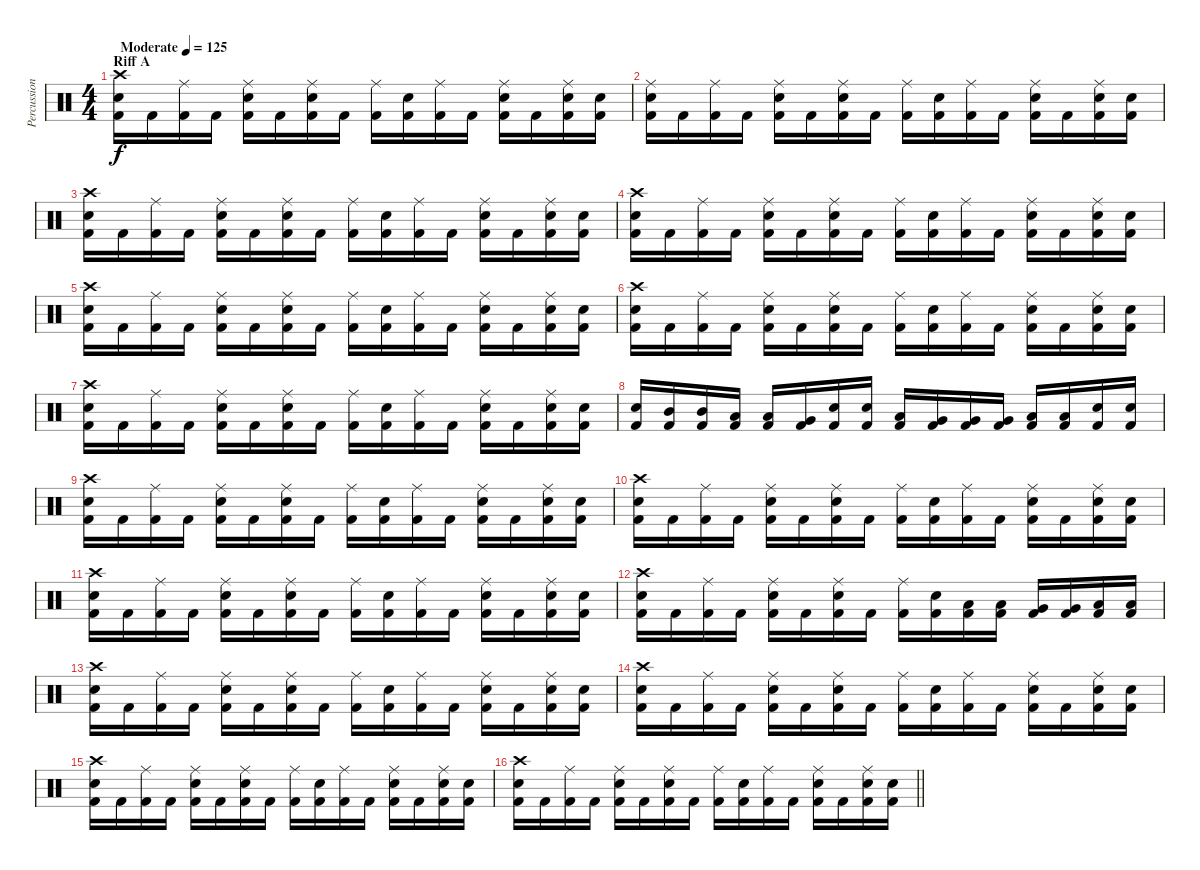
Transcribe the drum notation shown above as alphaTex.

\track ("Percussion" "Percussion") {instrument percussion}
\staff {score}
\articulation defaults
\ts (4 4)
\section ("" "Riff A")
\tempo (125 "Moderate")
\clef neutral
\ks c
("Crash high (hit)" "Snare (hit) 2" "Kick (hit) 2").16{dy f} "Kick (hit) 2".16 ("Ride (middle)" "Kick (hit) 2").16 "Kick (hit) 2".16 ("Ride (middle)" "Snare (hit) 2" "Kick (hit) 2").16 "Kick (hit) 2".16 ("Ride (middle)" "Snare (hit) 2" "Kick (hit) 2").16 "Kick (hit) 2".16 ("Ride (middle)" "Kick (hit) 2").16 ("Snare (hit) 2" "Kick (hit) 2").16 ("Ride (middle)" "Kick (hit) 2").16 "Kick (hit) 2".16 ("Ride (middle)" "Snare (hit) 2" "Kick (hit) 2").16 "Kick (hit) 2".16 ("Ride (middle)" "Snare (hit) 2" "Kick (hit) 2").16 ("Snare (hit) 2" "Kick (hit) 2").16 |
("Ride (middle)" "Snare (hit) 2" "Kick (hit) 2").16 "Kick (hit) 2".16 ("Ride (middle)" "Kick (hit) 2").16 "Kick (hit) 2".16 ("Ride (middle)" "Snare (hit) 2" "Kick (hit) 2").16 "Kick (hit) 2".16 ("Ride (middle)" "Snare (hit) 2" "Kick (hit) 2").16 "Kick (hit) 2".16 ("Ride (middle)" "Kick (hit) 2").16 ("Snare (hit) 2" "Kick (hit) 2").16 ("Ride (middle)" "Kick (hit) 2").16 "Kick (hit) 2".16 ("Ride (middle)" "Snare (hit) 2" "Kick (hit) 2").16 "Kick (hit) 2".16 ("Ride (middle)" "Snare (hit) 2" "Kick (hit) 2").16 ("Snare (hit) 2" "Kick (hit) 2").16 |
("Crash high (hit)" "Snare (hit) 2" "Kick (hit) 2").16 "Kick (hit) 2".16 ("Ride (middle)" "Kick (hit) 2").16 "Kick (hit) 2".16 ("Ride (middle)" "Snare (hit) 2" "Kick (hit) 2").16 "Kick (hit) 2".16 ("Ride (middle)" "Snare (hit) 2" "Kick (hit) 2").16 "Kick (hit) 2".16 ("Ride (middle)" "Kick (hit) 2").16 ("Snare (hit) 2" "Kick (hit) 2").16 ("Ride (middle)" "Kick (hit) 2").16 "Kick (hit) 2".16 ("Ride (middle)" "Snare (hit) 2" "Kick (hit) 2").16 "Kick (hit) 2".16 ("Ride (middle)" "Snare (hit) 2" "Kick (hit) 2").16 ("Snare (hit) 2" "Kick (hit) 2").16 |
("Crash high (hit)" "Snare (hit) 2" "Kick (hit) 2").16 "Kick (hit) 2".16 ("Ride (middle)" "Kick (hit) 2").16 "Kick (hit) 2".16 ("Ride (middle)" "Snare (hit) 2" "Kick (hit) 2").16 "Kick (hit) 2".16 ("Ride (middle)" "Snare (hit) 2" "Kick (hit) 2").16 "Kick (hit) 2".16 ("Ride (middle)" "Kick (hit) 2").16 ("Snare (hit) 2" "Kick (hit) 2").16 ("Ride (middle)" "Kick (hit) 2").16 "Kick (hit) 2".16 ("Ride (middle)" "Snare (hit) 2" "Kick (hit) 2").16 "Kick (hit) 2".16 ("Ride (middle)" "Snare (hit) 2" "Kick (hit) 2").16 ("Snare (hit) 2" "Kick (hit) 2").16 |
("Crash high (hit)" "Snare (hit) 2" "Kick (hit) 2").16 "Kick (hit) 2".16 ("Ride (middle)" "Kick (hit) 2").16 "Kick (hit) 2".16 ("Ride (middle)" "Snare (hit) 2" "Kick (hit) 2").16 "Kick (hit) 2".16 ("Ride (middle)" "Snare (hit) 2" "Kick (hit) 2").16 "Kick (hit) 2".16 ("Ride (middle)" "Kick (hit) 2").16 ("Snare (hit) 2" "Kick (hit) 2").16 ("Ride (middle)" "Kick (hit) 2").16 "Kick (hit) 2".16 ("Ride (middle)" "Snare (hit) 2" "Kick (hit) 2").16 "Kick (hit) 2".16 ("Ride (middle)" "Snare (hit) 2" "Kick (hit) 2").16 ("Snare (hit) 2" "Kick (hit) 2").16 |
("Crash high (hit)" "Snare (hit) 2" "Kick (hit) 2").16 "Kick (hit) 2".16 ("Ride (middle)" "Kick (hit) 2").16 "Kick (hit) 2".16 ("Ride (middle)" "Snare (hit) 2" "Kick (hit) 2").16 "Kick (hit) 2".16 ("Ride (middle)" "Snare (hit) 2" "Kick (hit) 2").16 "Kick (hit) 2".16 ("Ride (middle)" "Kick (hit) 2").16 ("Snare (hit) 2" "Kick (hit) 2").16 ("Ride (middle)" "Kick (hit) 2").16 "Kick (hit) 2".16 ("Ride (middle)" "Snare (hit) 2" "Kick (hit) 2").16 "Kick (hit) 2".16 ("Ride (middle)" "Snare (hit) 2" "Kick (hit) 2").16 ("Snare (hit) 2" "Kick (hit) 2").16 |
("Crash high (hit)" "Snare (hit) 2" "Kick (hit) 2").16 "Kick (hit) 2".16 ("Ride (middle)" "Kick (hit) 2").16 "Kick (hit) 2".16 ("Ride (middle)" "Snare (hit) 2" "Kick (hit) 2").16 "Kick (hit) 2".16 ("Ride (middle)" "Snare (hit) 2" "Kick (hit) 2").16 "Kick (hit) 2".16 ("Ride (middle)" "Kick (hit) 2").16 ("Snare (hit) 2" "Kick (hit) 2").16 ("Ride (middle)" "Kick (hit) 2").16 "Kick (hit) 2".16 ("Ride (middle)" "Snare (hit) 2" "Kick (hit) 2").16 "Kick (hit) 2".16 ("Ride (middle)" "Snare (hit) 2" "Kick (hit) 2").16 ("Snare (hit) 2" "Kick (hit) 2").16 |
("Snare (hit) 2" "Kick (hit) 2").16 ("Mid Tom (hit)" "Kick (hit) 2").16 ("Mid Tom (hit)" "Kick (hit) 2").16 ("Low Tom (hit)" "Kick (hit) 2").16 ("Low Tom (hit)" "Kick (hit) 2").16 ("Very Low Tom (hit)" "Kick (hit) 2").16 ("Snare (hit) 2" "Kick (hit) 2").16 ("Snare (hit) 2" "Kick (hit) 2").16 ("Low Tom (hit)" "Kick (hit) 2").16 ("Very Low Tom (hit)" "Kick (hit) 2").16 ("Very Low Tom (hit)" "Kick (hit) 2").16 ("Very Low Tom (hit)" "Kick (hit) 2").16 ("Low Floor Tom (hit)" "Kick (hit) 2").16 ("Low Floor Tom (hit)" "Kick (hit) 2").16 ("Snare (hit) 2" "Kick (hit) 2").16 ("Snare (hit) 2" "Kick (hit) 2").16 |
("Crash high (hit)" "Snare (hit) 2" "Kick (hit) 2").16 "Kick (hit) 2".16 ("Ride (middle)" "Kick (hit) 2").16 "Kick (hit) 2".16 ("Ride (middle)" "Snare (hit) 2" "Kick (hit) 2").16 "Kick (hit) 2".16 ("Ride (middle)" "Snare (hit) 2" "Kick (hit) 2").16 "Kick (hit) 2".16 ("Ride (middle)" "Kick (hit) 2").16 ("Snare (hit) 2" "Kick (hit) 2").16 ("Ride (middle)" "Kick (hit) 2").16 "Kick (hit) 2".16 ("Ride (middle)" "Snare (hit) 2" "Kick (hit) 2").16 "Kick (hit) 2".16 ("Ride (middle)" "Snare (hit) 2" "Kick (hit) 2").16 ("Snare (hit) 2" "Kick (hit) 2").16 |
("Crash high (hit)" "Snare (hit) 2" "Kick (hit) 2").16 "Kick (hit) 2".16 ("Ride (middle)" "Kick (hit) 2").16 "Kick (hit) 2".16 ("Ride (middle)" "Snare (hit) 2" "Kick (hit) 2").16 "Kick (hit) 2".16 ("Ride (middle)" "Snare (hit) 2" "Kick (hit) 2").16 "Kick (hit) 2".16 ("Ride (middle)" "Kick (hit) 2").16 ("Snare (hit) 2" "Kick (hit) 2").16 ("Ride (middle)" "Kick (hit) 2").16 "Kick (hit) 2".16 ("Ride (middle)" "Snare (hit) 2" "Kick (hit) 2").16 "Kick (hit) 2".16 ("Ride (middle)" "Snare (hit) 2" "Kick (hit) 2").16 ("Snare (hit) 2" "Kick (hit) 2").16 |
("Crash high (hit)" "Snare (hit) 2" "Kick (hit) 2").16 "Kick (hit) 2".16 ("Ride (middle)" "Kick (hit) 2").16 "Kick (hit) 2".16 ("Ride (middle)" "Snare (hit) 2" "Kick (hit) 2").16 "Kick (hit) 2".16 ("Ride (middle)" "Snare (hit) 2" "Kick (hit) 2").16 "Kick (hit) 2".16 ("Ride (middle)" "Kick (hit) 2").16 ("Snare (hit) 2" "Kick (hit) 2").16 ("Ride (middle)" "Kick (hit) 2").16 "Kick (hit) 2".16 ("Ride (middle)" "Snare (hit) 2" "Kick (hit) 2").16 "Kick (hit) 2".16 ("Ride (middle)" "Snare (hit) 2" "Kick (hit) 2").16 ("Snare (hit) 2" "Kick (hit) 2").16 |
("Crash high (hit)" "Snare (hit) 2" "Kick (hit) 2").16 "Kick (hit) 2".16 ("Ride (middle)" "Kick (hit) 2").16 "Kick (hit) 2".16 ("Ride (middle)" "Snare (hit) 2" "Kick (hit) 2").16 "Kick (hit) 2".16 ("Ride (middle)" "Snare (hit) 2" "Kick (hit) 2").16 "Kick (hit) 2".16 ("Ride (middle)" "Kick (hit) 2").16 ("Snare (hit) 2" "Kick (hit) 2").16 ("Low Tom (hit)" "Kick (hit) 2").16 ("Low Tom (hit)" "Kick (hit) 2").16 ("Very Low Tom (hit)" "Kick (hit) 2").16 ("Very Low Tom (hit)" "Kick (hit) 2").16 ("Low Floor Tom (hit)" "Kick (hit) 2").16 ("Low Floor Tom (hit)" "Kick (hit) 2").16 |
("Crash high (hit)" "Snare (hit) 2" "Kick (hit) 2").16 "Kick (hit) 2".16 ("Ride (middle)" "Kick (hit) 2").16 "Kick (hit) 2".16 ("Ride (middle)" "Snare (hit) 2" "Kick (hit) 2").16 "Kick (hit) 2".16 ("Ride (middle)" "Snare (hit) 2" "Kick (hit) 2").16 "Kick (hit) 2".16 ("Ride (middle)" "Kick (hit) 2").16 ("Snare (hit) 2" "Kick (hit) 2").16 ("Ride (middle)" "Kick (hit) 2").16 "Kick (hit) 2".16 ("Ride (middle)" "Snare (hit) 2" "Kick (hit) 2").16 "Kick (hit) 2".16 ("Ride (middle)" "Snare (hit) 2" "Kick (hit) 2").16 ("Snare (hit) 2" "Kick (hit) 2").16 |
("Crash high (hit)" "Snare (hit) 2" "Kick (hit) 2").16 "Kick (hit) 2".16 ("Ride (middle)" "Kick (hit) 2").16 "Kick (hit) 2".16 ("Ride (middle)" "Snare (hit) 2" "Kick (hit) 2").16 "Kick (hit) 2".16 ("Ride (middle)" "Snare (hit) 2" "Kick (hit) 2").16 "Kick (hit) 2".16 ("Ride (middle)" "Kick (hit) 2").16 ("Snare (hit) 2" "Kick (hit) 2").16 ("Ride (middle)" "Kick (hit) 2").16 "Kick (hit) 2".16 ("Ride (middle)" "Snare (hit) 2" "Kick (hit) 2").16 "Kick (hit) 2".16 ("Ride (middle)" "Snare (hit) 2" "Kick (hit) 2").16 ("Snare (hit) 2" "Kick (hit) 2").16 |
("Crash high (hit)" "Snare (hit) 2" "Kick (hit) 2").16 "Kick (hit) 2".16 ("Ride (middle)" "Kick (hit) 2").16 "Kick (hit) 2".16 ("Ride (middle)" "Snare (hit) 2" "Kick (hit) 2").16 "Kick (hit) 2".16 ("Ride (middle)" "Snare (hit) 2" "Kick (hit) 2").16 "Kick (hit) 2".16 ("Ride (middle)" "Kick (hit) 2").16 ("Snare (hit) 2" "Kick (hit) 2").16 ("Ride (middle)" "Kick (hit) 2").16 "Kick (hit) 2".16 ("Ride (middle)" "Snare (hit) 2" "Kick (hit) 2").16 "Kick (hit) 2".16 ("Ride (middle)" "Snare (hit) 2" "Kick (hit) 2").16 ("Snare (hit) 2" "Kick (hit) 2").16 |
\barLineRight lightlight
("Crash high (hit)" "Snare (hit) 2" "Kick (hit) 2").16 "Kick (hit) 2".16 ("Ride (middle)" "Kick (hit) 2").16 "Kick (hit) 2".16 ("Ride (middle)" "Snare (hit) 2" "Kick (hit) 2").16 "Kick (hit) 2".16 ("Ride (middle)" "Snare (hit) 2" "Kick (hit) 2").16 "Kick (hit) 2".16 ("Ride (middle)" "Kick (hit) 2").16 ("Snare (hit) 2" "Kick (hit) 2").16 ("Ride (middle)" "Kick (hit) 2").16 "Kick (hit) 2".16 ("Ride (middle)" "Snare (hit) 2" "Kick (hit) 2").16 "Kick (hit) 2".16 ("Ride (middle)" "Snare (hit) 2" "Kick (hit) 2").16 ("Snare (hit) 2" "Kick (hit) 2").16
